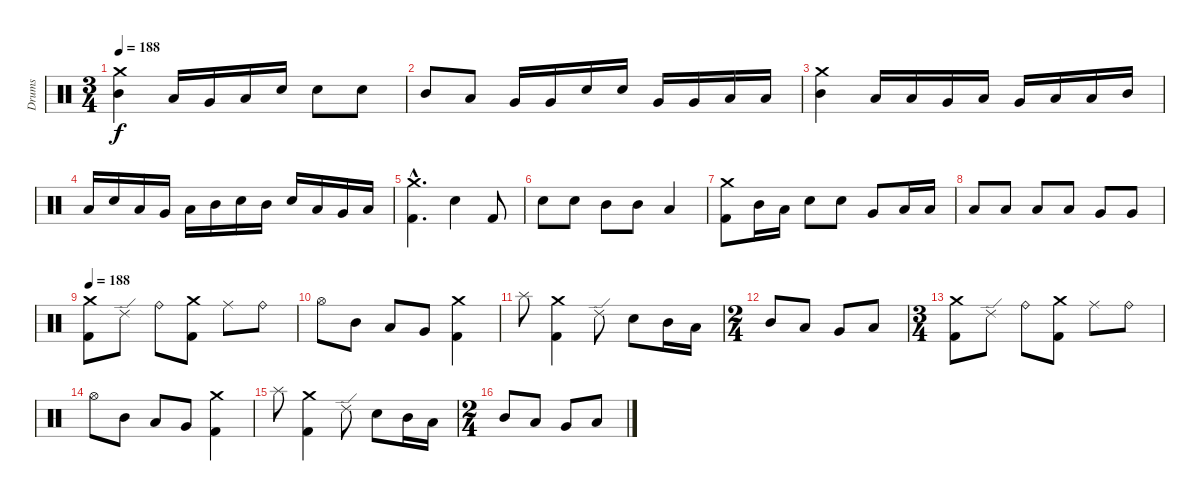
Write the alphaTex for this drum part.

\track ("Drums" "Drums") {instrument percussion}
\staff {score}
\articulation defaults
\ts (3 4)
\tempo 188
\clef neutral
\ks c
("Crash medium (hit)" "Mid Tom (hit)").4{dy f} "Low Tom (hit)".16 "Very Low Tom (hit)".16 "Low Floor Tom (hit)".16 "Snare (hit) 2".16 "Electric Snare (hit)".8 "Electric Snare (hit)".8 |
"Mid Tom (hit)".8 "Low Tom (hit)".8 "Very Low Tom (hit)".16 "Very Low Tom (hit)".16 "Electric Snare (hit)".16 "Electric Snare (hit)".16 "Very Low Tom (hit)".16 "Very Low Tom (hit)".16 "Low Floor Tom (hit)".16 "Low Floor Tom (hit)".16 |
("Crash medium (hit)" "Mid Tom (hit)").4 "Low Floor Tom (hit)".16 "Low Floor Tom (hit)".16 "Very Low Tom (hit)".16 "Low Tom (hit)".16 "Very Low Tom (hit)".16 "Low Floor Tom (hit)".16 "Low Floor Tom (hit)".16 "Mid Tom (hit)".16 |
"Low Tom (hit)".16 "Electric Snare (hit)".16 "Low Tom (hit)".16 "Very Low Tom (hit)".16 "Low Floor Tom (hit)".16 "Mid Tom (hit)".16 "Electric Snare (hit)".16 "Mid Tom (hit)".16 "Electric Snare (hit)".16 "Low Floor Tom (hit)".16 "Very Low Tom (hit)".16 "Low Tom (hit)".16 |
("Crash medium (hit)"{hac} "Kick (hit) 2"{hac}).4{d} "Electric Snare (hit)".4 "Kick (hit) 2".8 |
"Electric Snare (hit)".8 "Electric Snare (hit)".8 "Mid Tom (hit)".8 "Mid Tom (hit)".8 "Low Tom (hit)".4 |
("Crash medium (hit)" "Kick (hit) 2").8 "Mid Tom (hit)".16 "Low Tom (hit)".16 "Electric Snare (hit)".8 "Electric Snare (hit)".8 "Very Low Tom (hit)".8 "Low Tom (hit)".16 "Low Floor Tom (hit)".16 |
"Low Floor Tom (hit)".8 "Low Floor Tom (hit)".8 "Low Tom (hit)".8 "Low Tom (hit)".8 "Very Low Tom (hit)".8 "Very Low Tom (hit)".8 |
\tempo 188
("Crash medium (hit)" "Kick (hit) 2").8 "Ride (edge) 2".8 "Ride (bell)".8 ("Crash medium (hit)" "Kick (hit) 2").8 "Ride (middle)".8 "Ride (bell)".8 |
"Hi-Hat (open)".8 "Mid Tom (hit)".8 "Low Tom (hit)".8 "Very Low Tom (hit)".8 ("Crash medium (hit)" "Kick (hit) 2").4 |
"Splash (hit)".8 ("Crash medium (hit)" "Kick (hit) 2").4 "Ride (edge) 2".8 "Electric Snare (hit)".8 "Mid Tom (hit)".16 "Low Tom (hit)".16 |
\ts (2 4)
"Mid Tom (hit)".8 "Low Tom (hit)".8 "Very Low Tom (hit)".8 "Low Floor Tom (hit)".8 |
\ts (3 4)
("Crash medium (hit)" "Kick (hit) 2").8 "Ride (edge) 2".8 "Ride (bell)".8 ("Crash medium (hit)" "Kick (hit) 2").8 "Ride (middle)".8 "Ride (bell)".8 |
"Hi-Hat (open)".8 "Mid Tom (hit)".8 "Low Tom (hit)".8 "Very Low Tom (hit)".8 ("Crash medium (hit)" "Kick (hit) 2").4 |
"Splash (hit)".8 ("Crash medium (hit)" "Kick (hit) 2").4 "Ride (edge) 2".8 "Electric Snare (hit)".8 "Mid Tom (hit)".16 "Low Tom (hit)".16 |
\ts (2 4)
"Mid Tom (hit)".8 "Low Tom (hit)".8 "Very Low Tom (hit)".8 "Low Floor Tom (hit)".8
